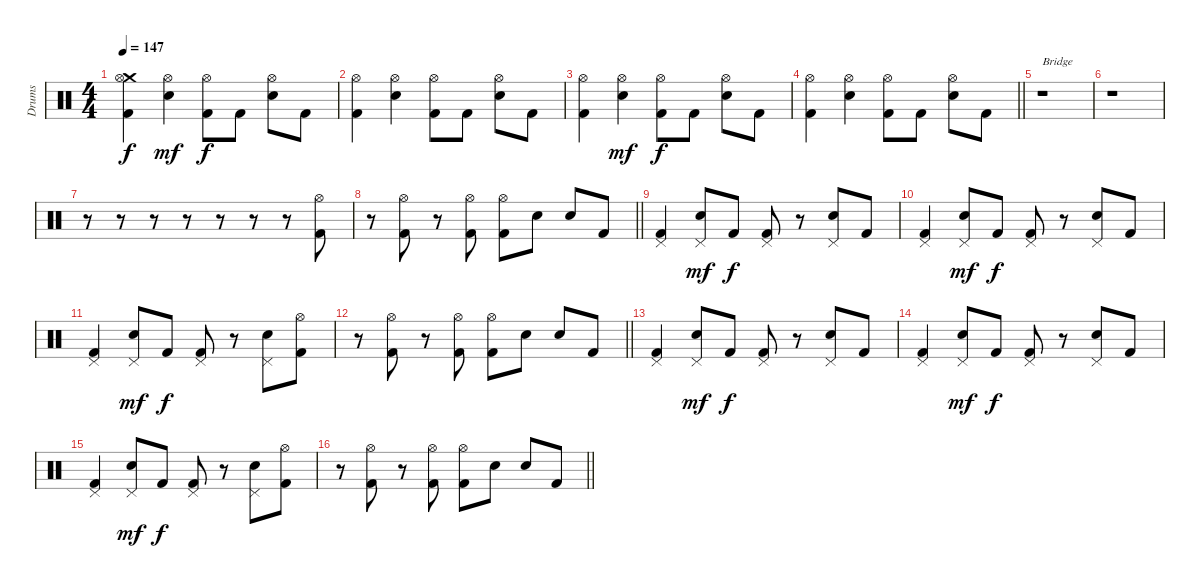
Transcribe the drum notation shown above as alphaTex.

\track ("Drums" "Drums") {instrument percussion}
\staff {score}
\articulation defaults
\ts (4 4)
\tempo 147
\clef neutral
\ks c
("Crash medium (hit)" "Hi-Hat (open)" "Kick (hit) 2").4{dy f} ("Hi-Hat (open)" "Electric Snare (hit)").4{dy mf} ("Hi-Hat (open)" "Kick (hit) 2").8{dy f} "Kick (hit) 2".8 ("Hi-Hat (open)" "Electric Snare (hit)").8 "Kick (hit) 2".8 |
("Hi-Hat (open)" "Kick (hit) 2").4 ("Hi-Hat (open)" "Electric Snare (hit)").4 ("Hi-Hat (open)" "Kick (hit) 2").8 "Kick (hit) 2".8 ("Hi-Hat (open)" "Electric Snare (hit)").8 "Kick (hit) 2".8 |
("Hi-Hat (open)" "Kick (hit) 2").4 ("Hi-Hat (open)" "Electric Snare (hit)").4{dy mf} ("Hi-Hat (open)" "Kick (hit) 2").8{dy f} "Kick (hit) 2".8 ("Hi-Hat (open)" "Electric Snare (hit)").8 "Kick (hit) 2".8 |
\barLineRight lightlight
("Hi-Hat (open)" "Kick (hit) 2").4 ("Hi-Hat (open)" "Electric Snare (hit)").4 ("Hi-Hat (open)" "Kick (hit) 2").8 "Kick (hit) 2".8 ("Hi-Hat (open)" "Electric Snare (hit)").8 "Kick (hit) 2".8 |
r.1{txt "Bridge"} |
r.1 |
r.8 r.8 r.8 r.8 r.8 r.8 r.8 ("Hi-Hat (open)" "Kick (hit) 2").8 |
\barLineRight lightlight
r.8 ("Hi-Hat (open)" "Kick (hit) 2").8 r.8 ("Hi-Hat (open)" "Kick (hit) 2").8 ("Hi-Hat (open)" "Kick (hit) 2").8 "Electric Snare (hit)".8 "Electric Snare (hit)".8 "Kick (hit) 2".8 |
("Pedal Hi-Hat (hit)" "Kick (hit) 2").4 ("Pedal Hi-Hat (hit)" "Electric Snare (hit)").8{dy mf} "Kick (hit) 2".8{dy f} ("Pedal Hi-Hat (hit)" "Kick (hit) 2").8 r.8 ("Pedal Hi-Hat (hit)" "Electric Snare (hit)").8 "Kick (hit) 2".8 |
("Pedal Hi-Hat (hit)" "Kick (hit) 2").4 ("Pedal Hi-Hat (hit)" "Electric Snare (hit)").8{dy mf} "Kick (hit) 2".8{dy f} ("Pedal Hi-Hat (hit)" "Kick (hit) 2").8 r.8 ("Pedal Hi-Hat (hit)" "Electric Snare (hit)").8 "Kick (hit) 2".8 |
("Pedal Hi-Hat (hit)" "Kick (hit) 2").4 ("Pedal Hi-Hat (hit)" "Electric Snare (hit)").8{dy mf} "Kick (hit) 2".8{dy f} ("Pedal Hi-Hat (hit)" "Kick (hit) 2").8 r.8 ("Pedal Hi-Hat (hit)" "Electric Snare (hit)").8 ("Hi-Hat (open)" "Kick (hit) 2").8 |
\barLineRight lightlight
r.8 ("Hi-Hat (open)" "Kick (hit) 2").8 r.8 ("Hi-Hat (open)" "Kick (hit) 2").8 ("Hi-Hat (open)" "Kick (hit) 2").8 "Electric Snare (hit)".8 "Electric Snare (hit)".8 "Kick (hit) 2".8 |
("Pedal Hi-Hat (hit)" "Kick (hit) 2").4 ("Pedal Hi-Hat (hit)" "Electric Snare (hit)").8{dy mf} "Kick (hit) 2".8{dy f} ("Pedal Hi-Hat (hit)" "Kick (hit) 2").8 r.8 ("Pedal Hi-Hat (hit)" "Electric Snare (hit)").8 "Kick (hit) 2".8 |
("Pedal Hi-Hat (hit)" "Kick (hit) 2").4 ("Pedal Hi-Hat (hit)" "Electric Snare (hit)").8{dy mf} "Kick (hit) 2".8{dy f} ("Pedal Hi-Hat (hit)" "Kick (hit) 2").8 r.8 ("Pedal Hi-Hat (hit)" "Electric Snare (hit)").8 "Kick (hit) 2".8 |
("Pedal Hi-Hat (hit)" "Kick (hit) 2").4 ("Pedal Hi-Hat (hit)" "Electric Snare (hit)").8{dy mf} "Kick (hit) 2".8{dy f} ("Pedal Hi-Hat (hit)" "Kick (hit) 2").8 r.8 ("Pedal Hi-Hat (hit)" "Electric Snare (hit)").8 ("Hi-Hat (open)" "Kick (hit) 2").8 |
\barLineRight lightlight
r.8 ("Hi-Hat (open)" "Kick (hit) 2").8 r.8 ("Hi-Hat (open)" "Kick (hit) 2").8 ("Hi-Hat (open)" "Kick (hit) 2").8 "Electric Snare (hit)".8 "Electric Snare (hit)".8 "Kick (hit) 2".8
